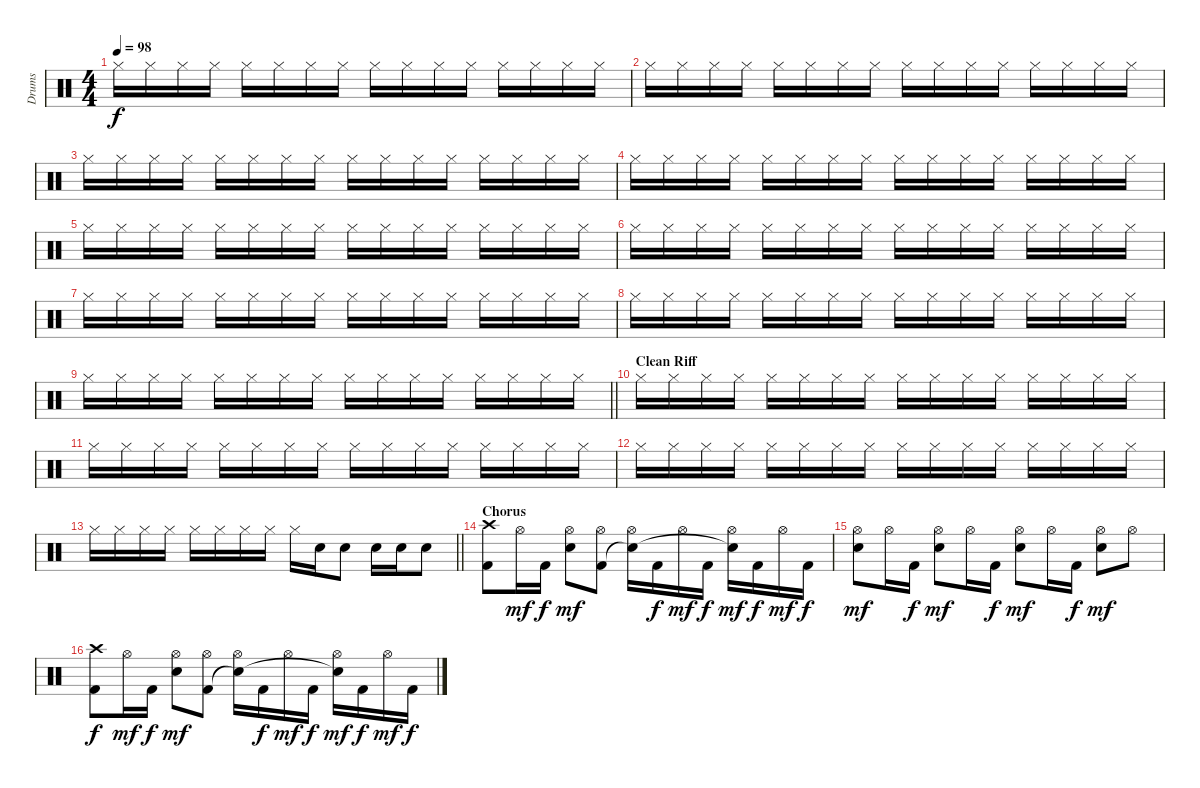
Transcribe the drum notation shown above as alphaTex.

\track ("Drums" "Drums") {instrument percussion}
\staff {score}
\articulation defaults
\ts (4 4)
\tempo 98
\clef neutral
\ks c "Hi-Hat (closed)".16{dy f} "Hi-Hat (closed)".16 "Hi-Hat (closed)".16 "Hi-Hat (closed)".16 "Hi-Hat (closed)".16 "Hi-Hat (closed)".16 "Hi-Hat (closed)".16 "Hi-Hat (closed)".16 "Hi-Hat (closed)".16 "Hi-Hat (closed)".16 "Hi-Hat (closed)".16 "Hi-Hat (closed)".16 "Hi-Hat (closed)".16 "Hi-Hat (closed)".16 "Hi-Hat (closed)".16 "Hi-Hat (closed)".16
|
"Hi-Hat (closed)".16 "Hi-Hat (closed)".16 "Hi-Hat (closed)".16 "Hi-Hat (closed)".16 "Hi-Hat (closed)".16 "Hi-Hat (closed)".16 "Hi-Hat (closed)".16 "Hi-Hat (closed)".16 "Hi-Hat (closed)".16 "Hi-Hat (closed)".16 "Hi-Hat (closed)".16 "Hi-Hat (closed)".16 "Hi-Hat (closed)".16 "Hi-Hat (closed)".16 "Hi-Hat (closed)".16 "Hi-Hat (closed)".16 |
"Hi-Hat (closed)".16 "Hi-Hat (closed)".16 "Hi-Hat (closed)".16 "Hi-Hat (closed)".16 "Hi-Hat (closed)".16 "Hi-Hat (closed)".16 "Hi-Hat (closed)".16 "Hi-Hat (closed)".16 "Hi-Hat (closed)".16 "Hi-Hat (closed)".16 "Hi-Hat (closed)".16 "Hi-Hat (closed)".16 "Hi-Hat (closed)".16 "Hi-Hat (closed)".16 "Hi-Hat (closed)".16 "Hi-Hat (closed)".16 |
"Hi-Hat (closed)".16 "Hi-Hat (closed)".16 "Hi-Hat (closed)".16 "Hi-Hat (closed)".16 "Hi-Hat (closed)".16 "Hi-Hat (closed)".16 "Hi-Hat (closed)".16 "Hi-Hat (closed)".16 "Hi-Hat (closed)".16 "Hi-Hat (closed)".16 "Hi-Hat (closed)".16 "Hi-Hat (closed)".16 "Hi-Hat (closed)".16 "Hi-Hat (closed)".16 "Hi-Hat (closed)".16 "Hi-Hat (closed)".16 |
"Hi-Hat (closed)".16 "Hi-Hat (closed)".16 "Hi-Hat (closed)".16 "Hi-Hat (closed)".16 "Hi-Hat (closed)".16 "Hi-Hat (closed)".16 "Hi-Hat (closed)".16 "Hi-Hat (closed)".16 "Hi-Hat (closed)".16 "Hi-Hat (closed)".16 "Hi-Hat (closed)".16 "Hi-Hat (closed)".16 "Hi-Hat (closed)".16 "Hi-Hat (closed)".16 "Hi-Hat (closed)".16 "Hi-Hat (closed)".16 |
"Hi-Hat (closed)".16 "Hi-Hat (closed)".16 "Hi-Hat (closed)".16 "Hi-Hat (closed)".16 "Hi-Hat (closed)".16 "Hi-Hat (closed)".16 "Hi-Hat (closed)".16 "Hi-Hat (closed)".16 "Hi-Hat (closed)".16 "Hi-Hat (closed)".16 "Hi-Hat (closed)".16 "Hi-Hat (closed)".16 "Hi-Hat (closed)".16 "Hi-Hat (closed)".16 "Hi-Hat (closed)".16 "Hi-Hat (closed)".16 |
"Hi-Hat (closed)".16 "Hi-Hat (closed)".16 "Hi-Hat (closed)".16 "Hi-Hat (closed)".16 "Hi-Hat (closed)".16 "Hi-Hat (closed)".16 "Hi-Hat (closed)".16 "Hi-Hat (closed)".16 "Hi-Hat (closed)".16 "Hi-Hat (closed)".16 "Hi-Hat (closed)".16 "Hi-Hat (closed)".16 "Hi-Hat (closed)".16 "Hi-Hat (closed)".16 "Hi-Hat (closed)".16 "Hi-Hat (closed)".16 |
"Hi-Hat (closed)".16 "Hi-Hat (closed)".16 "Hi-Hat (closed)".16 "Hi-Hat (closed)".16 "Hi-Hat (closed)".16 "Hi-Hat (closed)".16 "Hi-Hat (closed)".16 "Hi-Hat (closed)".16 "Hi-Hat (closed)".16 "Hi-Hat (closed)".16 "Hi-Hat (closed)".16 "Hi-Hat (closed)".16 "Hi-Hat (closed)".16 "Hi-Hat (closed)".16 "Hi-Hat (closed)".16 "Hi-Hat (closed)".16 |
\barLineRight lightlight "Hi-Hat (closed)".16 "Hi-Hat (closed)".16 "Hi-Hat (closed)".16 "Hi-Hat (closed)".16 "Hi-Hat (closed)".16 "Hi-Hat (closed)".16 "Hi-Hat (closed)".16 "Hi-Hat (closed)".16 "Hi-Hat (closed)".16 "Hi-Hat (closed)".16 "Hi-Hat (closed)".16 "Hi-Hat (closed)".16 "Hi-Hat (closed)".16 "Hi-Hat (closed)".16 "Hi-Hat (closed)".16 "Hi-Hat (closed)".16
|
\section ("" "Clean Riff")
"Hi-Hat (closed)".16 "Hi-Hat (closed)".16 "Hi-Hat (closed)".16 "Hi-Hat (closed)".16 "Hi-Hat (closed)".16 "Hi-Hat (closed)".16 "Hi-Hat (closed)".16 "Hi-Hat (closed)".16 "Hi-Hat (closed)".16 "Hi-Hat (closed)".16 "Hi-Hat (closed)".16 "Hi-Hat (closed)".16 "Hi-Hat (closed)".16 "Hi-Hat (closed)".16 "Hi-Hat (closed)".16 "Hi-Hat (closed)".16 |
"Hi-Hat (closed)".16 "Hi-Hat (closed)".16 "Hi-Hat (closed)".16 "Hi-Hat (closed)".16 "Hi-Hat (closed)".16 "Hi-Hat (closed)".16 "Hi-Hat (closed)".16 "Hi-Hat (closed)".16 "Hi-Hat (closed)".16 "Hi-Hat (closed)".16 "Hi-Hat (closed)".16 "Hi-Hat (closed)".16 "Hi-Hat (closed)".16 "Hi-Hat (closed)".16 "Hi-Hat (closed)".16 "Hi-Hat (closed)".16 |
"Hi-Hat (closed)".16 "Hi-Hat (closed)".16 "Hi-Hat (closed)".16 "Hi-Hat (closed)".16 "Hi-Hat (closed)".16 "Hi-Hat (closed)".16 "Hi-Hat (closed)".16 "Hi-Hat (closed)".16 "Hi-Hat (closed)".16 "Hi-Hat (closed)".16 "Hi-Hat (closed)".16 "Hi-Hat (closed)".16 "Hi-Hat (closed)".16 "Hi-Hat (closed)".16 "Hi-Hat (closed)".16 "Hi-Hat (closed)".16 |
\barLineRight lightlight "Hi-Hat (closed)".16 "Hi-Hat (closed)".16 "Hi-Hat (closed)".16 "Hi-Hat (closed)".16 "Hi-Hat (closed)".16 "Hi-Hat (closed)".16 "Hi-Hat (closed)".16 "Hi-Hat (closed)".16 "Hi-Hat (closed)".16 "Electric Snare (hit)".16 "Electric Snare (hit)".8 "Electric Snare (hit)".16 "Electric Snare (hit)".16 "Electric Snare (hit)".8
|
\section ("" "Chorus")
("Crash high (hit)" "Kick (hit) 2").8 "Hi-Hat (open)".16{dy mf} "Kick (hit) 2".16{dy f} ("Hi-Hat (open)" "Electric Snare (hit)").8{dy mf} ("Hi-Hat (open)" "Kick (hit) 2").8 ("Hi-Hat (open)" "Snare (hit)"{t}).16 "Kick (hit) 2".16{dy f} "Hi-Hat (open)".16{dy mf} "Kick (hit) 2".16{dy f} ("Hi-Hat (open)" "Snare (hit)"{t}).16{dy mf} "Kick (hit) 2".16{dy f} "Hi-Hat (open)".16{dy mf} "Kick (hit) 2".16{dy f} |
("Hi-Hat (open)" "Electric Snare (hit)").8{dy mf} "Hi-Hat (open)".16 "Kick (hit) 2".16{dy f} ("Hi-Hat (open)" "Electric Snare (hit)").8{dy mf} "Hi-Hat (open)".16 "Kick (hit) 2".16{dy f} ("Hi-Hat (open)" "Electric Snare (hit)").8{dy mf} "Hi-Hat (open)".16 "Kick (hit) 2".16{dy f} ("Hi-Hat (open)" "Electric Snare (hit)").8{dy mf} "Hi-Hat (open)".8 |
("Crash high (hit)" "Kick (hit) 2").8{dy f} "Hi-Hat (open)".16{dy mf} "Kick (hit) 2".16{dy f} ("Hi-Hat (open)" "Electric Snare (hit)").8{dy mf} ("Hi-Hat (open)" "Kick (hit) 2").8 ("Hi-Hat (open)" "Snare (hit)"{t}).16 "Kick (hit) 2".16{dy f} "Hi-Hat (open)".16{dy mf} "Kick (hit) 2".16{dy f} ("Hi-Hat (open)" "Snare (hit)"{t}).16{dy mf} "Kick (hit) 2".16{dy f} "Hi-Hat (open)".16{dy mf} "Kick (hit) 2".16{dy f}
